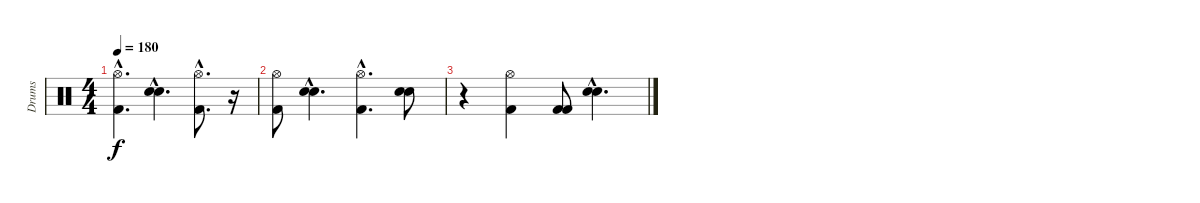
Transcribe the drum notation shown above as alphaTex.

\track ("Drums" "Drums") {instrument percussion}
\staff {score}
\articulation defaults
\ts (4 4)
\tempo 180
\clef neutral
\ks c
("Hi-Hat (open)"{hac} "Kick (hit) 2"{hac}).4{d dy f} ("Snare (hit) 2"{hac} "Electric Snare (hit)"{hac}).4{d} ("Hi-Hat (open)"{hac} "Kick (hit) 2"{hac}).8{d} r.16 |
("Hi-Hat (open)" "Kick (hit) 2").8 ("Snare (hit) 2"{hac} "Electric Snare (hit)"{hac}).4{d} ("Hi-Hat (open)"{hac} "Kick (hit) 2"{hac}).4{d} ("Snare (hit) 2" "Electric Snare (hit)").8 |
r.4 ("Kick (hit) 2" "Hi-Hat (open)").4 ("Kick (hit) 2" "Kick (hit) 2").8 ("Electric Snare (hit)"{hac} "Snare (hit) 2"{hac}).4{d}
